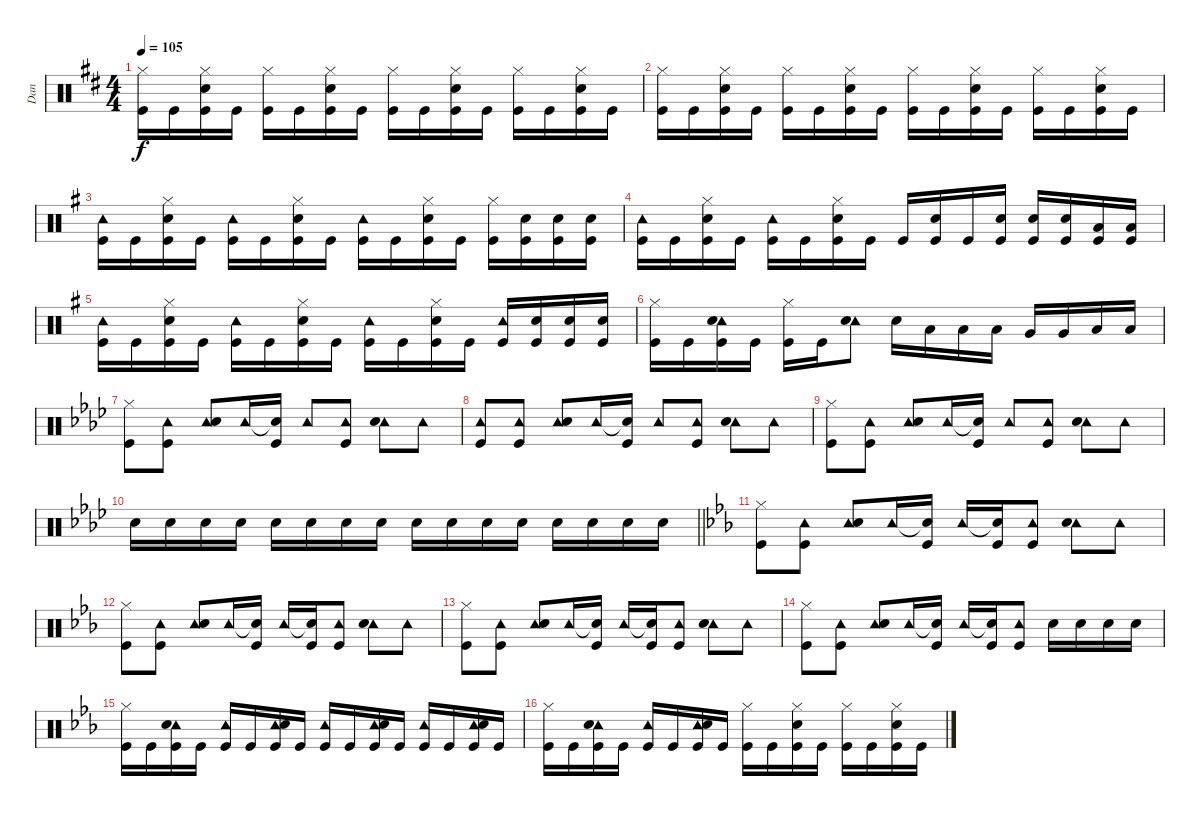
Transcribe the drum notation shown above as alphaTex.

\track ("Dan" "Dan") {instrument percussion}
\staff {score}
\articulation defaults
\ts (4 4)
\tempo 105
\clef neutral
\ks d
("Hi-Hat (closed)" "Kick (hit)").16{dy f} "Kick (hit)".16 ("Hi-Hat (closed)" "Snare (hit) 2" "Kick (hit)").16 "Kick (hit)".16 ("Hi-Hat (closed)" "Kick (hit)").16 "Kick (hit)".16 ("Hi-Hat (closed)" "Snare (hit) 2" "Kick (hit)").16 "Kick (hit)".16 ("Hi-Hat (closed)" "Kick (hit)").16 "Kick (hit)".16 ("Hi-Hat (closed)" "Snare (hit) 2" "Kick (hit)").16 "Kick (hit)".16 ("Hi-Hat (closed)" "Kick (hit)").16 "Kick (hit)".16 ("Hi-Hat (closed)" "Snare (hit) 2" "Kick (hit)").16 "Kick (hit)".16 |
("Hi-Hat (closed)" "Kick (hit)").16 "Kick (hit)".16 ("Hi-Hat (closed)" "Snare (hit) 2" "Kick (hit)").16 "Kick (hit)".16 ("Hi-Hat (closed)" "Kick (hit)").16 "Kick (hit)".16 ("Hi-Hat (closed)" "Snare (hit) 2" "Kick (hit)").16 "Kick (hit)".16 ("Hi-Hat (closed)" "Kick (hit)").16 "Kick (hit)".16 ("Hi-Hat (closed)" "Snare (hit) 2" "Kick (hit)").16 "Kick (hit)".16 ("Hi-Hat (closed)" "Kick (hit)").16 "Kick (hit)".16 ("Hi-Hat (closed)" "Snare (hit) 2" "Kick (hit)").16 "Kick (hit)".16 |
\ks g
("Tambourine (hit)" "Kick (hit)").16 "Kick (hit)".16 ("Hi-Hat (closed)" "Snare (hit) 2" "Kick (hit)").16 "Kick (hit)".16 ("Tambourine (hit)" "Kick (hit)").16 "Kick (hit)".16 ("Hi-Hat (closed)" "Snare (hit) 2" "Kick (hit)").16 "Kick (hit)".16 ("Tambourine (hit)" "Kick (hit)").16 "Kick (hit)".16 ("Hi-Hat (closed)" "Snare (hit) 2" "Kick (hit)").16 "Kick (hit)".16 ("Hi-Hat (closed)" "Kick (hit)").16 ("Snare (hit) 2" "Kick (hit)").16 ("Snare (hit) 2" "Kick (hit)").16 ("Snare (hit) 2" "Kick (hit)").16 |
("Tambourine (hit)" "Kick (hit)").16 "Kick (hit)".16 ("Hi-Hat (closed)" "Snare (hit) 2" "Kick (hit)").16 "Kick (hit)".16 ("Tambourine (hit)" "Kick (hit)").16 "Kick (hit)".16 ("Hi-Hat (closed)" "Snare (hit) 2" "Kick (hit)").16 "Kick (hit)".16 "Kick (hit)".16 ("Snare (hit) 2" "Kick (hit)").16 "Kick (hit)".16 ("Snare (hit) 2" "Kick (hit)").16 ("Snare (hit) 2" "Kick (hit)").16 ("Snare (hit) 2" "Kick (hit)").16 ("Low Tom (hit)" "Kick (hit)").16 ("Low Tom (hit)" "Kick (hit)").16 |
("Tambourine (hit)" "Kick (hit)").16 "Kick (hit)".16 ("Hi-Hat (closed)" "Snare (hit) 2" "Kick (hit)").16 "Kick (hit)".16 ("Tambourine (hit)" "Kick (hit)").16 "Kick (hit)".16 ("Hi-Hat (closed)" "Snare (hit) 2" "Kick (hit)").16 "Kick (hit)".16 ("Tambourine (hit)" "Kick (hit)").16 "Kick (hit)".16 ("Hi-Hat (closed)" "Snare (hit) 2" "Kick (hit)").16 "Kick (hit)".16 ("Tambourine (hit)" "Kick (hit)").16 ("Snare (hit) 2" "Kick (hit)").16 ("Snare (hit) 2" "Kick (hit)").16 ("Snare (hit) 2" "Kick (hit)").16 |
("Hi-Hat (closed)" "Kick (hit)").16 "Kick (hit)".16 ("Tambourine (hit)" "Snare (hit) 2" "Kick (hit)").16 "Kick (hit)".16 ("Hi-Hat (closed)" "Kick (hit)").16 "Kick (hit)".16 ("Tambourine (hit)" "Snare (hit) 2").8 "Snare (hit) 2".16 "Low Tom (hit)".16 "Low Tom (hit)".16 "Low Tom (hit)".16 "Very Low Tom (hit)".16 "Very Low Tom (hit)".16 "Low Floor Tom (hit)".16 "Low Floor Tom (hit)".16 |
\ks ab
("Hi-Hat (closed)" "Kick (hit)").8 ("Tambourine (hit)" "Kick (hit)").8 ("Tambourine (hit)" "Snare (hit) 2").8 "Tambourine (hit)".16 ("Snare (hit)"{t} "Kick (hit)").16 "Tambourine (hit)".8 ("Tambourine (hit)" "Kick (hit)").8 ("Tambourine (hit)" "Snare (hit) 2").8 "Tambourine (hit)".8 |
("Tambourine (hit)" "Kick (hit)").8 ("Tambourine (hit)" "Kick (hit)").8 ("Tambourine (hit)" "Snare (hit) 2").8 "Tambourine (hit)".16 ("Snare (hit)"{t} "Kick (hit)").16 "Tambourine (hit)".8 ("Tambourine (hit)" "Kick (hit)").8 ("Tambourine (hit)" "Snare (hit) 2").8 "Tambourine (hit)".8 |
("Hi-Hat (closed)" "Kick (hit)").8 ("Tambourine (hit)" "Kick (hit)").8 ("Tambourine (hit)" "Snare (hit) 2").8 "Tambourine (hit)".16 ("Snare (hit)"{t} "Kick (hit)").16 "Tambourine (hit)".8 ("Tambourine (hit)" "Kick (hit)").8 ("Tambourine (hit)" "Snare (hit) 2").8 "Tambourine (hit)".8 |
\barLineRight lightlight "Snare (hit) 2".16 "Snare (hit) 2".16 "Snare (hit) 2".16 "Snare (hit) 2".16 "Snare (hit) 2".16 "Snare (hit) 2".16 "Snare (hit) 2".16 "Snare (hit) 2".16 "Snare (hit) 2".16 "Snare (hit) 2".16 "Snare (hit) 2".16 "Snare (hit) 2".16 "Snare (hit) 2".16 "Snare (hit) 2".16 "Snare (hit) 2".16 "Snare (hit) 2".16
|
\ks eb
("Hi-Hat (closed)" "Kick (hit)").8 ("Tambourine (hit)" "Kick (hit)").8 ("Tambourine (hit)" "Snare (hit) 2").8 "Tambourine (hit)".16 ("Snare (hit)"{t} "Kick (hit)").16 "Tambourine (hit)".16 ("Snare (hit)"{t} "Kick (hit)").16 ("Tambourine (hit)" "Kick (hit)").8 ("Tambourine (hit)" "Snare (hit) 2").8 "Tambourine (hit)".8 |
("Hi-Hat (closed)" "Kick (hit)").8 ("Tambourine (hit)" "Kick (hit)").8 ("Tambourine (hit)" "Snare (hit) 2").8 "Tambourine (hit)".16 ("Snare (hit)"{t} "Kick (hit)").16 "Tambourine (hit)".16 ("Snare (hit)"{t} "Kick (hit)").16 ("Tambourine (hit)" "Kick (hit)").8 ("Tambourine (hit)" "Snare (hit) 2").8 "Tambourine (hit)".8 |
("Hi-Hat (closed)" "Kick (hit)").8 ("Tambourine (hit)" "Kick (hit)").8 ("Tambourine (hit)" "Snare (hit) 2").8 "Tambourine (hit)".16 ("Snare (hit)"{t} "Kick (hit)").16 "Tambourine (hit)".16 ("Snare (hit)"{t} "Kick (hit)").16 ("Tambourine (hit)" "Kick (hit)").8 ("Tambourine (hit)" "Snare (hit) 2").8 "Tambourine (hit)".8 |
("Hi-Hat (closed)" "Kick (hit)").8 ("Tambourine (hit)" "Kick (hit)").8 ("Tambourine (hit)" "Snare (hit) 2").8 "Tambourine (hit)".16 ("Snare (hit)"{t} "Kick (hit)").16 "Tambourine (hit)".16 ("Snare (hit)"{t} "Kick (hit)").16 ("Tambourine (hit)" "Kick (hit)").8 "Snare (hit) 2".16 "Snare (hit) 2".16 "Snare (hit) 2".16 "Snare (hit) 2".16 |
("Hi-Hat (closed)" "Kick (hit)").16 "Kick (hit)".16 ("Tambourine (hit)" "Snare (hit) 2" "Kick (hit)").16 "Kick (hit)".16 ("Tambourine (hit)" "Kick (hit)").16 "Kick (hit)".16 ("Tambourine (hit)" "Snare (hit) 2" "Kick (hit)").16 "Kick (hit)".16 ("Tambourine (hit)" "Kick (hit)").16 "Kick (hit)".16 ("Tambourine (hit)" "Snare (hit) 2" "Kick (hit)").16 "Kick (hit)".16 ("Tambourine (hit)" "Kick (hit)").16 "Kick (hit)".16 ("Tambourine (hit)" "Snare (hit) 2" "Kick (hit)").16 "Kick (hit)".16 |
("Hi-Hat (closed)" "Kick (hit)").16 "Kick (hit)".16 ("Tambourine (hit)" "Snare (hit) 2" "Kick (hit)").16 "Kick (hit)".16 ("Tambourine (hit)" "Kick (hit)").16 "Kick (hit)".16 ("Tambourine (hit)" "Snare (hit) 2" "Kick (hit)").16 "Kick (hit)".16 ("Hi-Hat (closed)" "Kick (hit)").16 "Kick (hit)".16 ("Hi-Hat (closed)" "Snare (hit) 2" "Kick (hit)").16 "Kick (hit)".16 ("Hi-Hat (closed)" "Kick (hit)").16 "Kick (hit)".16 ("Hi-Hat (closed)" "Snare (hit) 2" "Kick (hit)").16 "Kick (hit)".16
